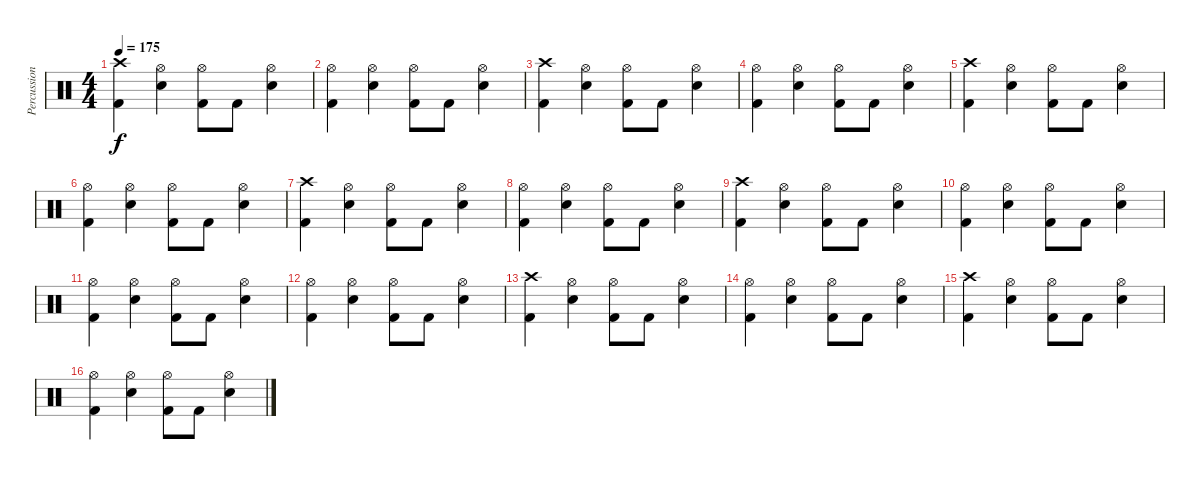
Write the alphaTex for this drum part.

\track ("Percussion" "Percussion") {instrument percussion}
\staff {score}
\articulation defaults
\ts (4 4)
\tempo 175
\clef neutral
\ks c
("Kick (hit) 2" "Crash high (hit)").4{dy f} ("Electric Snare (hit)" "Hi-Hat (open)").4 ("Kick (hit) 2" "Hi-Hat (open)").8 "Kick (hit) 2".8 ("Electric Snare (hit)" "Hi-Hat (open)").4 |
("Kick (hit) 2" "Hi-Hat (open)").4 ("Electric Snare (hit)" "Hi-Hat (open)").4 ("Kick (hit) 2" "Hi-Hat (open)").8 "Kick (hit) 2".8 ("Electric Snare (hit)" "Hi-Hat (open)").4 |
("Kick (hit) 2" "Crash high (hit)").4 ("Electric Snare (hit)" "Hi-Hat (open)").4 ("Kick (hit) 2" "Hi-Hat (open)").8 "Kick (hit) 2".8 ("Electric Snare (hit)" "Hi-Hat (open)").4 |
("Kick (hit) 2" "Hi-Hat (open)").4 ("Electric Snare (hit)" "Hi-Hat (open)").4 ("Kick (hit) 2" "Hi-Hat (open)").8 "Kick (hit) 2".8 ("Electric Snare (hit)" "Hi-Hat (open)").4 |
("Kick (hit) 2" "Crash high (hit)").4 ("Electric Snare (hit)" "Hi-Hat (open)").4 ("Kick (hit) 2" "Hi-Hat (open)").8 "Kick (hit) 2".8 ("Electric Snare (hit)" "Hi-Hat (open)").4 |
("Kick (hit) 2" "Hi-Hat (open)").4 ("Electric Snare (hit)" "Hi-Hat (open)").4 ("Kick (hit) 2" "Hi-Hat (open)").8 "Kick (hit) 2".8 ("Electric Snare (hit)" "Hi-Hat (open)").4 |
("Kick (hit) 2" "Crash high (hit)").4 ("Electric Snare (hit)" "Hi-Hat (open)").4 ("Kick (hit) 2" "Hi-Hat (open)").8 "Kick (hit) 2".8 ("Electric Snare (hit)" "Hi-Hat (open)").4 |
("Kick (hit) 2" "Hi-Hat (open)").4 ("Electric Snare (hit)" "Hi-Hat (open)").4 ("Kick (hit) 2" "Hi-Hat (open)").8 "Kick (hit) 2".8 ("Electric Snare (hit)" "Hi-Hat (open)").4 |
("Kick (hit) 2" "Crash high (hit)").4 ("Electric Snare (hit)" "Hi-Hat (open)").4 ("Kick (hit) 2" "Hi-Hat (open)").8 "Kick (hit) 2".8 ("Electric Snare (hit)" "Hi-Hat (open)").4 |
("Kick (hit) 2" "Hi-Hat (open)").4 ("Electric Snare (hit)" "Hi-Hat (open)").4 ("Kick (hit) 2" "Hi-Hat (open)").8 "Kick (hit) 2".8 ("Electric Snare (hit)" "Hi-Hat (open)").4 |
("Kick (hit) 2" "Hi-Hat (open)").4 ("Electric Snare (hit)" "Hi-Hat (open)").4 ("Kick (hit) 2" "Hi-Hat (open)").8 "Kick (hit) 2".8 ("Electric Snare (hit)" "Hi-Hat (open)").4 |
("Kick (hit) 2" "Hi-Hat (open)").4 ("Electric Snare (hit)" "Hi-Hat (open)").4 ("Kick (hit) 2" "Hi-Hat (open)").8 "Kick (hit) 2".8 ("Electric Snare (hit)" "Hi-Hat (open)").4 |
("Kick (hit) 2" "Crash high (hit)").4 ("Electric Snare (hit)" "Hi-Hat (open)").4 ("Kick (hit) 2" "Hi-Hat (open)").8 "Kick (hit) 2".8 ("Electric Snare (hit)" "Hi-Hat (open)").4 |
("Kick (hit) 2" "Hi-Hat (open)").4 ("Electric Snare (hit)" "Hi-Hat (open)").4 ("Kick (hit) 2" "Hi-Hat (open)").8 "Kick (hit) 2".8 ("Electric Snare (hit)" "Hi-Hat (open)").4 |
("Kick (hit) 2" "Crash high (hit)").4 ("Electric Snare (hit)" "Hi-Hat (open)").4 ("Kick (hit) 2" "Hi-Hat (open)").8 "Kick (hit) 2".8 ("Electric Snare (hit)" "Hi-Hat (open)").4 |
("Kick (hit) 2" "Hi-Hat (open)").4 ("Electric Snare (hit)" "Hi-Hat (open)").4 ("Kick (hit) 2" "Hi-Hat (open)").8 "Kick (hit) 2".8 ("Electric Snare (hit)" "Hi-Hat (open)").4
